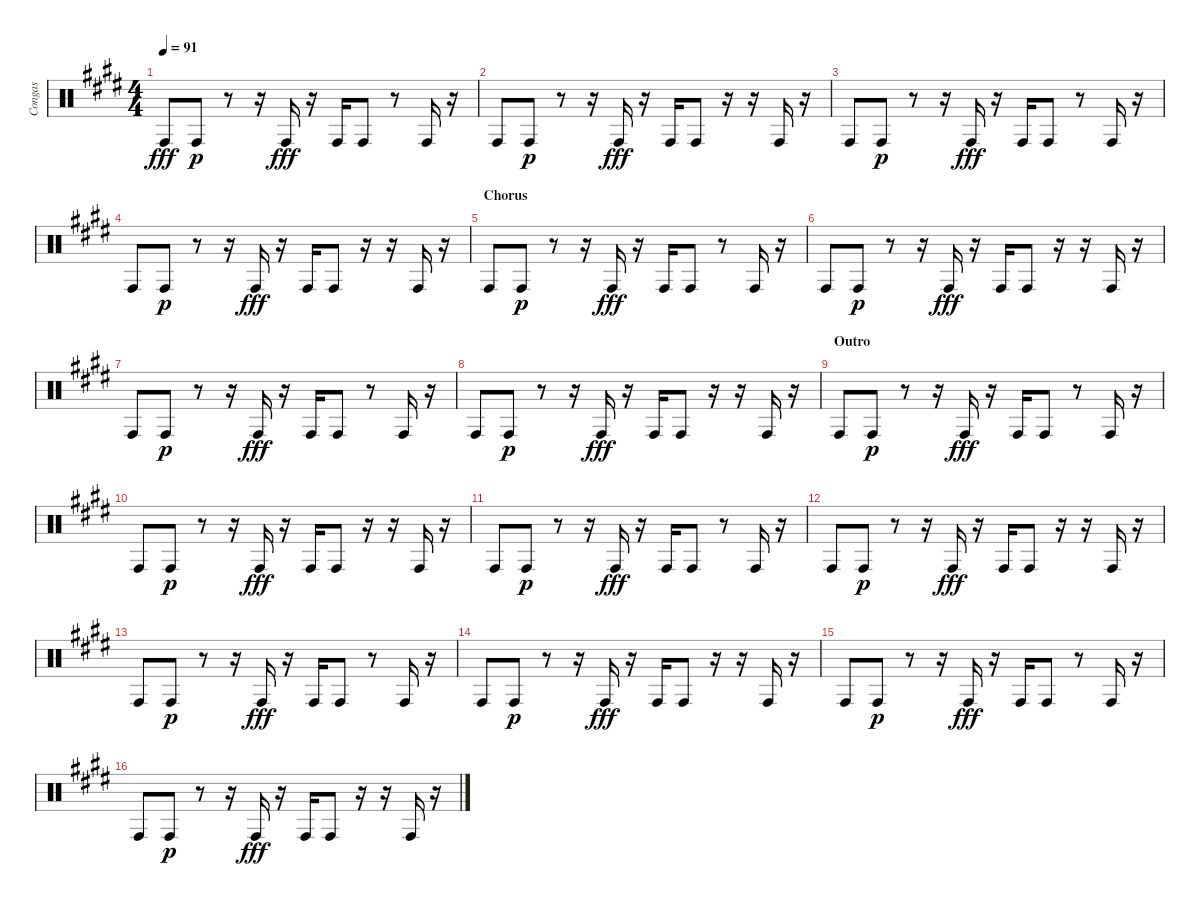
\track ("Congas" "Congas") {instrument percussion}
\staff {score}
\articulation defaults
\ts (4 4)
\tempo 91
\clef neutral
\ks e "Conga high (hit)".8{dy fff} "Conga high (hit)".8{dy p}
r.8 r.16 "Conga high (hit)".16{dy fff} r.16 "Conga high (hit)".16 "Conga high (hit)".8 r.8 "Conga high (hit)".16 r.16 |
"Conga high (hit)".8 "Conga high (hit)".8{dy p} r.8 r.16 "Conga high (hit)".16{dy fff} r.16 "Conga high (hit)".16 "Conga high (hit)".8 r.16 r.16 "Conga high (hit)".16 r.16 |
"Conga high (hit)".8 "Conga high (hit)".8{dy p} r.8 r.16 "Conga high (hit)".16{dy fff} r.16 "Conga high (hit)".16 "Conga high (hit)".8 r.8 "Conga high (hit)".16 r.16 |
"Conga high (hit)".8 "Conga high (hit)".8{dy p} r.8 r.16 "Conga high (hit)".16{dy fff} r.16 "Conga high (hit)".16 "Conga high (hit)".8 r.16 r.16 "Conga high (hit)".16 r.16 |
\section ("" "Chorus")
"Conga high (hit)".8 "Conga high (hit)".8{dy p} r.8 r.16 "Conga high (hit)".16{dy fff} r.16 "Conga high (hit)".16 "Conga high (hit)".8 r.8 "Conga high (hit)".16 r.16 |
"Conga high (hit)".8 "Conga high (hit)".8{dy p} r.8 r.16 "Conga high (hit)".16{dy fff} r.16 "Conga high (hit)".16 "Conga high (hit)".8 r.16 r.16 "Conga high (hit)".16 r.16 |
"Conga high (hit)".8 "Conga high (hit)".8{dy p} r.8 r.16 "Conga high (hit)".16{dy fff} r.16 "Conga high (hit)".16 "Conga high (hit)".8 r.8 "Conga high (hit)".16 r.16 |
"Conga high (hit)".8 "Conga high (hit)".8{dy p} r.8 r.16 "Conga high (hit)".16{dy fff} r.16 "Conga high (hit)".16 "Conga high (hit)".8 r.16 r.16 "Conga high (hit)".16 r.16 |
\section ("" "Outro")
"Conga high (hit)".8 "Conga high (hit)".8{dy p} r.8 r.16 "Conga high (hit)".16{dy fff} r.16 "Conga high (hit)".16 "Conga high (hit)".8 r.8 "Conga high (hit)".16 r.16 |
"Conga high (hit)".8 "Conga high (hit)".8{dy p} r.8 r.16 "Conga high (hit)".16{dy fff} r.16 "Conga high (hit)".16 "Conga high (hit)".8 r.16 r.16 "Conga high (hit)".16 r.16 |
"Conga high (hit)".8 "Conga high (hit)".8{dy p} r.8 r.16 "Conga high (hit)".16{dy fff} r.16 "Conga high (hit)".16 "Conga high (hit)".8 r.8 "Conga high (hit)".16 r.16 |
"Conga high (hit)".8 "Conga high (hit)".8{dy p} r.8 r.16 "Conga high (hit)".16{dy fff} r.16 "Conga high (hit)".16 "Conga high (hit)".8 r.16 r.16 "Conga high (hit)".16 r.16 |
"Conga high (hit)".8 "Conga high (hit)".8{dy p} r.8 r.16 "Conga high (hit)".16{dy fff} r.16 "Conga high (hit)".16 "Conga high (hit)".8 r.8 "Conga high (hit)".16 r.16 |
"Conga high (hit)".8 "Conga high (hit)".8{dy p} r.8 r.16 "Conga high (hit)".16{dy fff} r.16 "Conga high (hit)".16 "Conga high (hit)".8 r.16 r.16 "Conga high (hit)".16 r.16 |
"Conga high (hit)".8 "Conga high (hit)".8{dy p} r.8 r.16 "Conga high (hit)".16{dy fff} r.16 "Conga high (hit)".16 "Conga high (hit)".8 r.8 "Conga high (hit)".16 r.16 |
"Conga high (hit)".8 "Conga high (hit)".8{dy p} r.8 r.16 "Conga high (hit)".16{dy fff} r.16 "Conga high (hit)".16 "Conga high (hit)".8 r.16 r.16 "Conga high (hit)".16 r.16
